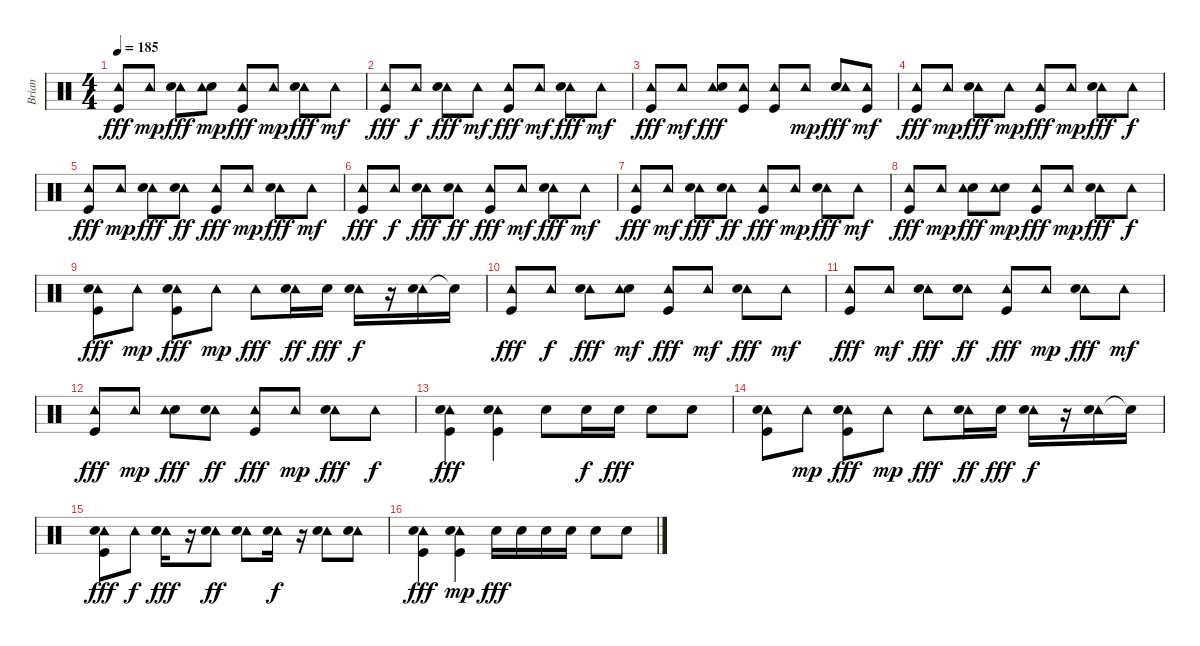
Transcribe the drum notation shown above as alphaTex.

\track ("Brian" "Brian") {instrument percussion}
\staff {score}
\articulation defaults
\ts (4 4)
\tempo 185
\clef neutral
\ks c
("Tambourine (hit)" "Kick (hit)").8{dy fff} "Tambourine (hit)".8{dy mp} ("Tambourine (hit)" "Electric Snare (hit)").8{dy fff} ("Electric Snare (hit)" "Tambourine (hit)").8{dy mp} ("Tambourine (hit)" "Kick (hit)").8{dy fff} "Tambourine (hit)".8{dy mp} ("Tambourine (hit)" "Electric Snare (hit)").8{dy fff} "Tambourine (hit)".8{dy mf} |
("Tambourine (hit)" "Kick (hit)").8{dy fff} "Tambourine (hit)".8{dy f} ("Tambourine (hit)" "Electric Snare (hit)").8{dy fff} "Tambourine (hit)".8{dy mf} ("Tambourine (hit)" "Kick (hit)").8{dy fff} "Tambourine (hit)".8{dy mf} ("Tambourine (hit)" "Electric Snare (hit)").8{dy fff} "Tambourine (hit)".8{dy mf} |
("Tambourine (hit)" "Kick (hit)").8{dy fff} "Tambourine (hit)".8{dy mf} ("Tambourine (hit)" "Electric Snare (hit)").8{dy fff} ("Tambourine (hit)" "Kick (hit)").8 ("Tambourine (hit)" "Kick (hit)").8 "Tambourine (hit)".8{dy mp} ("Electric Snare (hit)" "Tambourine (hit)").8{dy fff} ("Kick (hit)" "Tambourine (hit)").8{dy mf} |
("Tambourine (hit)" "Kick (hit)").8{dy fff} "Tambourine (hit)".8{dy mp} ("Tambourine (hit)" "Electric Snare (hit)").8{dy fff} "Tambourine (hit)".8{dy mp} ("Tambourine (hit)" "Kick (hit)").8{dy fff} "Tambourine (hit)".8{dy mp} ("Tambourine (hit)" "Electric Snare (hit)").8{dy fff} "Tambourine (hit)".8{dy f} |
("Tambourine (hit)" "Kick (hit)").8{dy fff} "Tambourine (hit)".8{dy mp} ("Tambourine (hit)" "Electric Snare (hit)").8{dy fff} ("Tambourine (hit)" "Electric Snare (hit)").8{dy ff} ("Tambourine (hit)" "Kick (hit)").8{dy fff} "Tambourine (hit)".8{dy mp} ("Tambourine (hit)" "Electric Snare (hit)").8{dy fff} "Tambourine (hit)".8{dy mf} |
("Tambourine (hit)" "Kick (hit)").8{dy fff} "Tambourine (hit)".8{dy f} ("Tambourine (hit)" "Electric Snare (hit)").8{dy fff} ("Tambourine (hit)" "Electric Snare (hit)").8{dy ff} ("Tambourine (hit)" "Kick (hit)").8{dy fff} "Tambourine (hit)".8{dy mf} ("Tambourine (hit)" "Electric Snare (hit)").8{dy fff} "Tambourine (hit)".8{dy mf} |
("Tambourine (hit)" "Kick (hit)").8{dy fff} "Tambourine (hit)".8{dy mf} ("Tambourine (hit)" "Electric Snare (hit)").8{dy fff} ("Tambourine (hit)" "Electric Snare (hit)").8{dy ff} ("Kick (hit)" "Tambourine (hit)").8{dy fff} "Tambourine (hit)".8{dy mp} ("Tambourine (hit)" "Electric Snare (hit)").8{dy fff} "Tambourine (hit)".8{dy mf} |
("Tambourine (hit)" "Kick (hit)").8{dy fff} "Tambourine (hit)".8{dy mp} ("Electric Snare (hit)" "Tambourine (hit)").8{dy fff} ("Electric Snare (hit)" "Tambourine (hit)").8{dy mp} ("Tambourine (hit)" "Kick (hit)").8{dy fff} "Tambourine (hit)".8{dy mp} ("Tambourine (hit)" "Electric Snare (hit)").8{dy fff} "Tambourine (hit)".8{dy f} |
("Tambourine (hit)" "Electric Snare (hit)" "Kick (hit)").8{dy fff} "Tambourine (hit)".8{dy mp} ("Tambourine (hit)" "Electric Snare (hit)" "Kick (hit)").8{dy fff} "Tambourine (hit)".8{dy mp} "Tambourine (hit)".8{dy fff} ("Tambourine (hit)" "Electric Snare (hit)").16{dy ff} "Electric Snare (hit)".16{dy fff} ("Tambourine (hit)" "Electric Snare (hit)").16{dy f} r.16 ("Tambourine (hit)" "Electric Snare (hit)").16 "Snare (hit)"{t}.16 |
("Tambourine (hit)" "Kick (hit)").8{dy fff} "Tambourine (hit)".8{dy f} ("Tambourine (hit)" "Electric Snare (hit)").8{dy fff} ("Electric Snare (hit)" "Tambourine (hit)").8{dy mf} ("Tambourine (hit)" "Kick (hit)").8{dy fff} "Tambourine (hit)".8{dy mf} ("Tambourine (hit)" "Electric Snare (hit)").8{dy fff} "Tambourine (hit)".8{dy mf} |
("Tambourine (hit)" "Kick (hit)").8{dy fff} "Tambourine (hit)".8{dy mf} ("Tambourine (hit)" "Electric Snare (hit)").8{dy fff} ("Tambourine (hit)" "Electric Snare (hit)").8{dy ff} ("Kick (hit)" "Tambourine (hit)").8{dy fff} "Tambourine (hit)".8{dy mp} ("Tambourine (hit)" "Electric Snare (hit)").8{dy fff} "Tambourine (hit)".8{dy mf} |
("Tambourine (hit)" "Kick (hit)").8{dy fff} "Tambourine (hit)".8{dy mp} ("Electric Snare (hit)" "Tambourine (hit)").8{dy fff} ("Tambourine (hit)" "Electric Snare (hit)").8{dy ff} ("Tambourine (hit)" "Kick (hit)").8{dy fff} "Tambourine (hit)".8{dy mp} ("Tambourine (hit)" "Electric Snare (hit)").8{dy fff} "Tambourine (hit)".8{dy f} |
("Tambourine (hit)" "Electric Snare (hit)" "Kick (hit)").4{dy fff} ("Tambourine (hit)" "Electric Snare (hit)" "Kick (hit)").4 "Electric Snare (hit)".8 "Electric Snare (hit)".16{dy f} "Electric Snare (hit)".16{dy fff} "Electric Snare (hit)".8 "Electric Snare (hit)".8 |
("Tambourine (hit)" "Electric Snare (hit)" "Kick (hit)").8 "Tambourine (hit)".8{dy mp} ("Tambourine (hit)" "Electric Snare (hit)" "Kick (hit)").8{dy fff} "Tambourine (hit)".8{dy mp} "Tambourine (hit)".8{dy fff} ("Tambourine (hit)" "Electric Snare (hit)").16{dy ff} "Electric Snare (hit)".16{dy fff} ("Tambourine (hit)" "Electric Snare (hit)").16{dy f} r.16 ("Tambourine (hit)" "Electric Snare (hit)").16 "Snare (hit)"{t}.16 |
("Tambourine (hit)" "Electric Snare (hit)" "Kick (hit)").8{dy fff} "Tambourine (hit)".8{dy f} ("Tambourine (hit)" "Electric Snare (hit)").16{dy fff} r.16 ("Tambourine (hit)" "Electric Snare (hit)").8{dy ff} ("Tambourine (hit)" "Electric Snare (hit)").8 ("Tambourine (hit)" "Electric Snare (hit)").16{dy f} r.16 ("Tambourine (hit)" "Electric Snare (hit)").8 ("Tambourine (hit)" "Electric Snare (hit)").8 |
("Tambourine (hit)" "Electric Snare (hit)" "Kick (hit)").4{dy fff} ("Tambourine (hit)" "Electric Snare (hit)" "Kick (hit)").4{dy mp} "Electric Snare (hit)".16{dy fff} "Electric Snare (hit)".16 "Electric Snare (hit)".16 "Electric Snare (hit)".16 "Electric Snare (hit)".8 "Electric Snare (hit)".8
